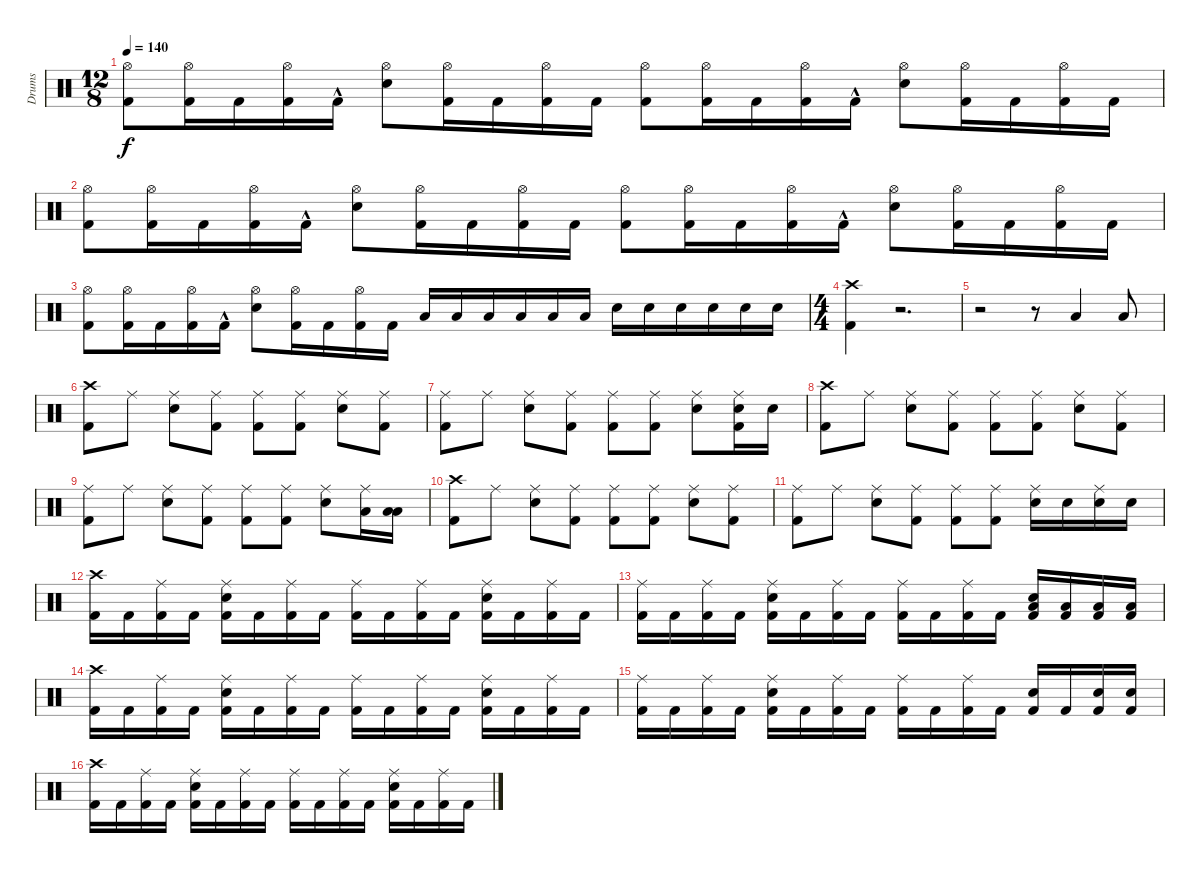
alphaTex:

\track ("Drums" "Drums") {instrument percussion}
\staff {score}
\articulation defaults
\ts (12 8)
\tempo 140
\clef neutral
\ks c
("Hi-Hat (open)" "Kick (hit) 2").8{dy f} ("Kick (hit) 2" "Hi-Hat (open)").16 "Kick (hit) 2".16 ("Hi-Hat (open)" "Kick (hit) 2").16 "Kick (hit) 2"{hac}.16 ("Hi-Hat (open)" "Snare (hit) 2").8 ("Kick (hit) 2" "Hi-Hat (open)").16 "Kick (hit) 2".16 ("Hi-Hat (open)" "Kick (hit) 2").16 "Kick (hit) 2".16 ("Hi-Hat (open)" "Kick (hit) 2").8 ("Kick (hit) 2" "Hi-Hat (open)").16 "Kick (hit) 2".16 ("Hi-Hat (open)" "Kick (hit) 2").16 "Kick (hit) 2"{hac}.16 ("Hi-Hat (open)" "Snare (hit) 2").8 ("Kick (hit) 2" "Hi-Hat (open)").16 "Kick (hit) 2".16 ("Hi-Hat (open)" "Kick (hit) 2").16 "Kick (hit) 2".16 |
("Hi-Hat (open)" "Kick (hit) 2").8 ("Kick (hit) 2" "Hi-Hat (open)").16 "Kick (hit) 2".16 ("Hi-Hat (open)" "Kick (hit) 2").16 "Kick (hit) 2"{hac}.16 ("Hi-Hat (open)" "Snare (hit) 2").8 ("Kick (hit) 2" "Hi-Hat (open)").16 "Kick (hit) 2".16 ("Hi-Hat (open)" "Kick (hit) 2").16 "Kick (hit) 2".16 ("Hi-Hat (open)" "Kick (hit) 2").8 ("Kick (hit) 2" "Hi-Hat (open)").16 "Kick (hit) 2".16 ("Hi-Hat (open)" "Kick (hit) 2").16 "Kick (hit) 2"{hac}.16 ("Hi-Hat (open)" "Snare (hit) 2").8 ("Kick (hit) 2" "Hi-Hat (open)").16 "Kick (hit) 2".16 ("Hi-Hat (open)" "Kick (hit) 2").16 "Kick (hit) 2".16 |
("Hi-Hat (open)" "Kick (hit) 2").8 ("Kick (hit) 2" "Hi-Hat (open)").16 "Kick (hit) 2".16 ("Hi-Hat (open)" "Kick (hit) 2").16 "Kick (hit) 2"{hac}.16 ("Hi-Hat (open)" "Snare (hit) 2").8 ("Kick (hit) 2" "Hi-Hat (open)").16 "Kick (hit) 2".16 ("Hi-Hat (open)" "Kick (hit) 2").16 "Kick (hit) 2".16 "Low Tom (hit)".16 "Low Tom (hit)".16 "Low Tom (hit)".16 "Low Tom (hit)".16 "Low Tom (hit)".16 "Low Tom (hit)".16 "Snare (hit) 2".16 "Snare (hit) 2".16 "Snare (hit) 2".16 "Snare (hit) 2".16 "Snare (hit) 2".16 "Snare (hit) 2".16 |
\ts (4 4)
("Kick (hit) 2" "Crash high (hit)").4 r.2{d} |
r.2 r.8 "Low Floor Tom (hit)".4 "Low Floor Tom (hit)".8 |
("Kick (hit) 2" "Crash high (hit)").8 "Ride (middle)".8 ("Snare (hit) 2" "Ride (middle)").8 ("Ride (middle)" "Kick (hit) 2").8 ("Ride (middle)" "Kick (hit) 2").8 ("Ride (middle)" "Kick (hit) 2").8 ("Ride (middle)" "Snare (hit) 2").8 ("Ride (middle)" "Kick (hit) 2").8 |
("Kick (hit) 2" "Ride (middle)").8 "Ride (middle)".8 ("Ride (middle)" "Snare (hit) 2").8 ("Kick (hit) 2" "Ride (middle)").8 ("Kick (hit) 2" "Ride (middle)").8 ("Kick (hit) 2" "Ride (middle)").8 ("Snare (hit) 2" "Ride (middle)").8 ("Kick (hit) 2" "Ride (middle)" "Snare (hit) 2").16 "Snare (hit) 2".16 |
("Kick (hit) 2" "Crash high (hit)").8 "Ride (middle)".8 ("Snare (hit) 2" "Ride (middle)").8 ("Ride (middle)" "Kick (hit) 2").8 ("Ride (middle)" "Kick (hit) 2").8 ("Ride (middle)" "Kick (hit) 2").8 ("Ride (middle)" "Snare (hit) 2").8 ("Ride (middle)" "Kick (hit) 2").8 |
("Kick (hit) 2" "Ride (middle)").8 "Ride (middle)".8 ("Ride (middle)" "Snare (hit) 2").8 ("Kick (hit) 2" "Ride (middle)").8 ("Kick (hit) 2" "Ride (middle)").8 ("Kick (hit) 2" "Ride (middle)").8 ("Snare (hit) 2" "Ride (middle)").8 ("Low Tom (hit)" "Ride (middle)").16 ("Low Tom (hit)" "Low Tom (hit)").16 |
("Crash high (hit)" "Kick (hit) 2").8 "Ride (middle)".8 ("Snare (hit) 2" "Ride (middle)").8 ("Ride (middle)" "Kick (hit) 2").8 ("Ride (middle)" "Kick (hit) 2").8 ("Ride (middle)" "Kick (hit) 2").8 ("Ride (middle)" "Snare (hit) 2").8 ("Ride (middle)" "Kick (hit) 2").8 |
("Kick (hit) 2" "Ride (middle)").8 "Ride (middle)".8 ("Ride (middle)" "Snare (hit) 2").8 ("Kick (hit) 2" "Ride (middle)").8 ("Kick (hit) 2" "Ride (middle)").8 ("Kick (hit) 2" "Ride (middle)").8 ("Snare (hit) 2" "Ride (middle)").16 "Snare (hit) 2".16 ("Ride (middle)" "Snare (hit) 2").16 "Snare (hit) 2".16 |
("Kick (hit) 2" "Crash high (hit)").16 "Kick (hit) 2".16 ("Kick (hit) 2" "Ride (middle)").16 "Kick (hit) 2".16 ("Ride (middle)" "Kick (hit) 2" "Snare (hit) 2").16 "Kick (hit) 2".16 ("Ride (middle)" "Kick (hit) 2").16 "Kick (hit) 2".16 ("Kick (hit) 2" "Ride (middle)").16 "Kick (hit) 2".16 ("Kick (hit) 2" "Ride (middle)").16 "Kick (hit) 2".16 ("Ride (middle)" "Kick (hit) 2" "Snare (hit) 2").16 "Kick (hit) 2".16 ("Ride (middle)" "Kick (hit) 2").16 "Kick (hit) 2".16 |
("Kick (hit) 2" "Ride (middle)").16 "Kick (hit) 2".16 ("Kick (hit) 2" "Ride (middle)").16 "Kick (hit) 2".16 ("Ride (middle)" "Kick (hit) 2" "Snare (hit) 2").16 "Kick (hit) 2".16 ("Ride (middle)" "Kick (hit) 2").16 "Kick (hit) 2".16 ("Kick (hit) 2" "Ride (middle)").16 "Kick (hit) 2".16 ("Kick (hit) 2" "Ride (middle)").16 "Kick (hit) 2".16 ("Low Tom (hit)" "Kick (hit) 2" "Snare (hit) 2").16 ("Kick (hit) 2" "Low Tom (hit)").16 ("Kick (hit) 2" "Low Tom (hit)").16 ("Low Tom (hit)" "Kick (hit) 2").16 |
("Crash high (hit)" "Kick (hit) 2").16 "Kick (hit) 2".16 ("Kick (hit) 2" "Ride (middle)").16 "Kick (hit) 2".16 ("Ride (middle)" "Kick (hit) 2" "Snare (hit) 2").16 "Kick (hit) 2".16 ("Ride (middle)" "Kick (hit) 2").16 "Kick (hit) 2".16 ("Kick (hit) 2" "Ride (middle)").16 "Kick (hit) 2".16 ("Kick (hit) 2" "Ride (middle)").16 "Kick (hit) 2".16 ("Ride (middle)" "Kick (hit) 2" "Snare (hit) 2").16 "Kick (hit) 2".16 ("Ride (middle)" "Kick (hit) 2").16 "Kick (hit) 2".16 |
("Kick (hit) 2" "Ride (middle)").16 "Kick (hit) 2".16 ("Kick (hit) 2" "Ride (middle)").16 "Kick (hit) 2".16 ("Ride (middle)" "Kick (hit) 2" "Snare (hit) 2").16 "Kick (hit) 2".16 ("Ride (middle)" "Kick (hit) 2").16 "Kick (hit) 2".16 ("Kick (hit) 2" "Ride (middle)").16 "Kick (hit) 2".16 ("Kick (hit) 2" "Ride (middle)").16 "Kick (hit) 2".16 ("Kick (hit) 2" "Snare (hit) 2").16 "Kick (hit) 2".16 ("Kick (hit) 2" "Snare (hit) 2").16 ("Snare (hit) 2" "Kick (hit) 2").16 |
("Crash high (hit)" "Kick (hit) 2").16 "Kick (hit) 2".16 ("Kick (hit) 2" "Ride (middle)").16 "Kick (hit) 2".16 ("Ride (middle)" "Kick (hit) 2" "Snare (hit) 2").16 "Kick (hit) 2".16 ("Ride (middle)" "Kick (hit) 2").16 "Kick (hit) 2".16 ("Kick (hit) 2" "Ride (middle)").16 "Kick (hit) 2".16 ("Kick (hit) 2" "Ride (middle)").16 "Kick (hit) 2".16 ("Ride (middle)" "Kick (hit) 2" "Snare (hit) 2").16 "Kick (hit) 2".16 ("Ride (middle)" "Kick (hit) 2").16 "Kick (hit) 2".16
